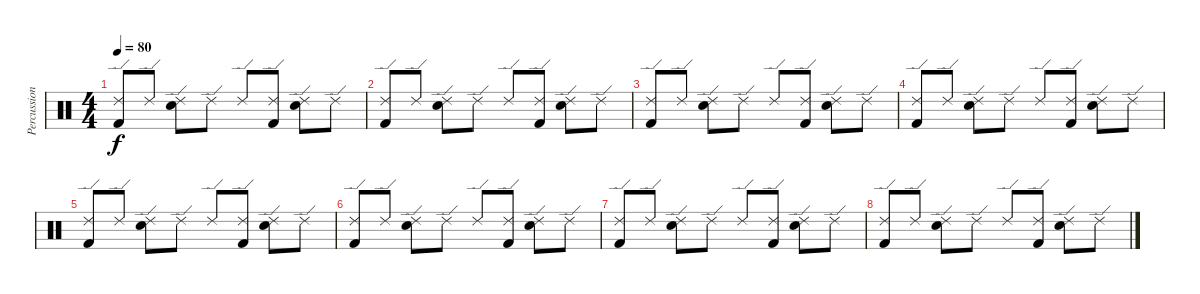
\track ("Percussion" "Percussion") {instrument percussion}
\staff {score}
\articulation defaults
\ts (4 4)
\tempo 80
\clef neutral
\ks c
("Ride (edge) 2" "Kick (hit) 2").8{dy f} "Ride (edge) 2".8 ("Ride (edge) 2" "Electric Snare (hit)").8 "Ride (edge) 2".8 "Ride (edge) 2".8 ("Ride (edge) 2" "Kick (hit) 2").8 ("Ride (edge) 2" "Electric Snare (hit)").8 "Ride (edge) 2".8 |
("Ride (edge) 2" "Kick (hit) 2").8 "Ride (edge) 2".8 ("Ride (edge) 2" "Electric Snare (hit)").8 "Ride (edge) 2".8 "Ride (edge) 2".8 ("Ride (edge) 2" "Kick (hit) 2").8 ("Ride (edge) 2" "Electric Snare (hit)").8 "Ride (edge) 2".8 |
("Ride (edge) 2" "Kick (hit) 2").8 "Ride (edge) 2".8 ("Ride (edge) 2" "Electric Snare (hit)").8 "Ride (edge) 2".8 "Ride (edge) 2".8 ("Ride (edge) 2" "Kick (hit) 2").8 ("Ride (edge) 2" "Electric Snare (hit)").8 "Ride (edge) 2".8 |
("Ride (edge) 2" "Kick (hit) 2").8 "Ride (edge) 2".8 ("Ride (edge) 2" "Electric Snare (hit)").8 "Ride (edge) 2".8 "Ride (edge) 2".8 ("Ride (edge) 2" "Kick (hit) 2").8 ("Ride (edge) 2" "Electric Snare (hit)").8 "Ride (edge) 2".8 |
("Ride (edge) 2" "Kick (hit) 2").8 "Ride (edge) 2".8 ("Ride (edge) 2" "Electric Snare (hit)").8 "Ride (edge) 2".8 "Ride (edge) 2".8 ("Ride (edge) 2" "Kick (hit) 2").8 ("Ride (edge) 2" "Electric Snare (hit)").8 "Ride (edge) 2".8 |
("Ride (edge) 2" "Kick (hit) 2").8 "Ride (edge) 2".8 ("Ride (edge) 2" "Electric Snare (hit)").8 "Ride (edge) 2".8 "Ride (edge) 2".8 ("Ride (edge) 2" "Kick (hit) 2").8 ("Ride (edge) 2" "Electric Snare (hit)").8 "Ride (edge) 2".8 |
("Ride (edge) 2" "Kick (hit) 2").8 "Ride (edge) 2".8 ("Ride (edge) 2" "Electric Snare (hit)").8 "Ride (edge) 2".8 "Ride (edge) 2".8 ("Ride (edge) 2" "Kick (hit) 2").8 ("Ride (edge) 2" "Electric Snare (hit)").8 "Ride (edge) 2".8 |
("Ride (edge) 2" "Kick (hit) 2").8 "Ride (edge) 2".8 ("Ride (edge) 2" "Electric Snare (hit)").8 "Ride (edge) 2".8 "Ride (edge) 2".8 ("Ride (edge) 2" "Kick (hit) 2").8 ("Ride (edge) 2" "Electric Snare (hit)").8 "Ride (edge) 2".8
